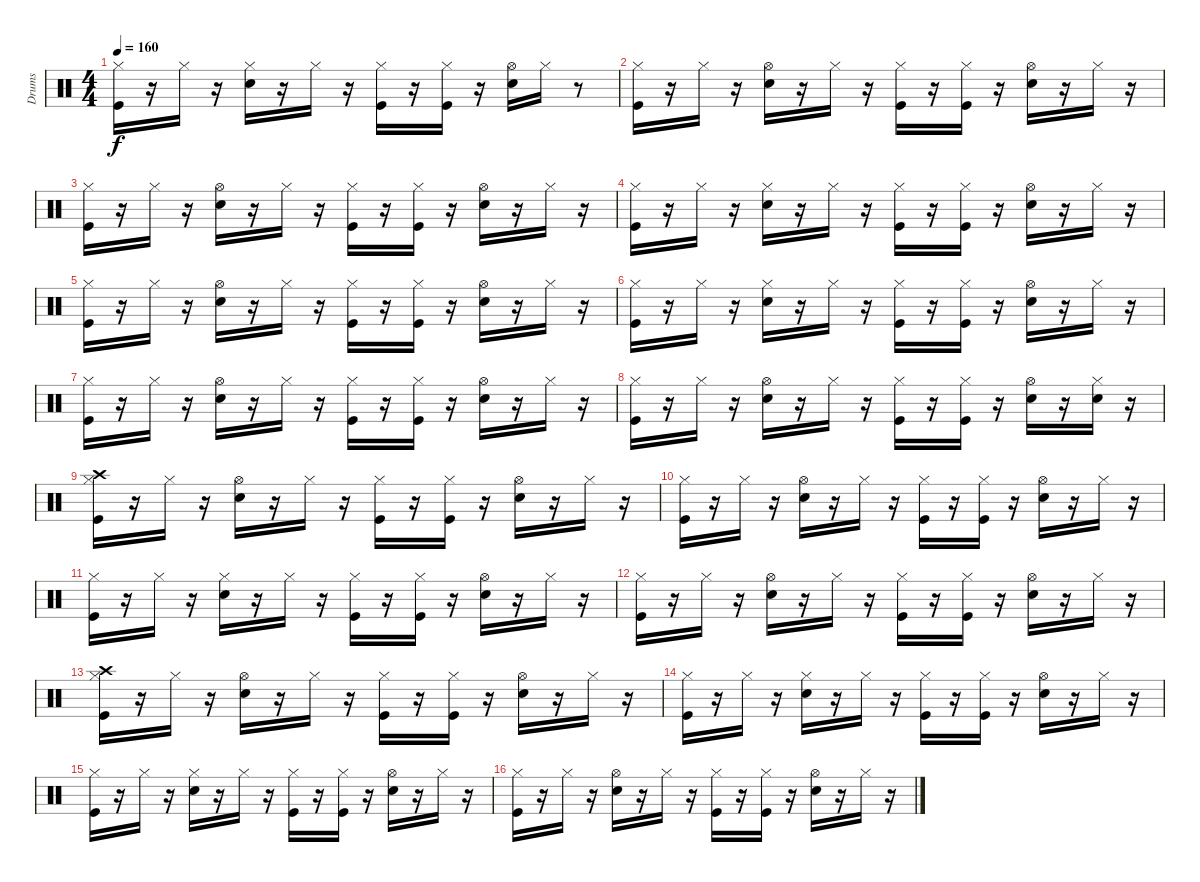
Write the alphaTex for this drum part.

\track ("Drums" "Drums") {instrument percussion}
\staff {score}
\articulation defaults
\ts (4 4)
\tempo 160
\clef neutral
\ks c
("Hi-Hat (closed)" "Kick (hit)").16{dy f} r.16 "Hi-Hat (closed)".16 r.16 ("Hi-Hat (closed)" "Snare (hit) 2").16 r.16 "Hi-Hat (closed)".16 r.16 ("Hi-Hat (closed)" "Kick (hit)").16 r.16 ("Kick (hit)" "Hi-Hat (closed)").16 r.16 ("Hi-Hat (open)" "Snare (hit) 2").16 "Hi-Hat (closed)".16 r.8 |
("Hi-Hat (closed)" "Kick (hit)").16 r.16 "Hi-Hat (closed)".16 r.16 ("Hi-Hat (open)" "Snare (hit) 2").16 r.16 "Hi-Hat (closed)".16 r.16 ("Hi-Hat (closed)" "Kick (hit)").16 r.16 ("Kick (hit)" "Hi-Hat (closed)").16 r.16 ("Hi-Hat (open)" "Snare (hit) 2").16 r.16 "Hi-Hat (closed)".16 r.16 |
("Hi-Hat (closed)" "Kick (hit)").16 r.16 "Hi-Hat (closed)".16 r.16 ("Hi-Hat (open)" "Snare (hit) 2").16 r.16 "Hi-Hat (closed)".16 r.16 ("Hi-Hat (closed)" "Kick (hit)").16 r.16 ("Kick (hit)" "Hi-Hat (closed)").16 r.16 ("Hi-Hat (open)" "Snare (hit) 2").16 r.16 "Hi-Hat (closed)".16 r.16 |
("Hi-Hat (closed)" "Kick (hit)").16 r.16 "Hi-Hat (closed)".16 r.16 ("Hi-Hat (closed)" "Snare (hit) 2").16 r.16 "Hi-Hat (closed)".16 r.16 ("Hi-Hat (closed)" "Kick (hit)").16 r.16 ("Kick (hit)" "Hi-Hat (closed)").16 r.16 ("Hi-Hat (open)" "Snare (hit) 2").16 r.16 "Hi-Hat (closed)".16 r.16 |
("Hi-Hat (closed)" "Kick (hit)").16 r.16 "Hi-Hat (closed)".16 r.16 ("Hi-Hat (open)" "Snare (hit) 2").16 r.16 "Hi-Hat (closed)".16 r.16 ("Hi-Hat (closed)" "Kick (hit)").16 r.16 ("Kick (hit)" "Hi-Hat (closed)").16 r.16 ("Hi-Hat (open)" "Snare (hit) 2").16 r.16 "Hi-Hat (closed)".16 r.16 |
("Hi-Hat (closed)" "Kick (hit)").16 r.16 "Hi-Hat (closed)".16 r.16 ("Hi-Hat (closed)" "Snare (hit) 2").16 r.16 "Hi-Hat (closed)".16 r.16 ("Hi-Hat (closed)" "Kick (hit)").16 r.16 ("Kick (hit)" "Hi-Hat (closed)").16 r.16 ("Hi-Hat (open)" "Snare (hit) 2").16 r.16 "Hi-Hat (closed)".16 r.16 |
("Hi-Hat (closed)" "Kick (hit)").16 r.16 "Hi-Hat (closed)".16 r.16 ("Hi-Hat (open)" "Snare (hit) 2").16 r.16 "Hi-Hat (closed)".16 r.16 ("Hi-Hat (closed)" "Kick (hit)").16 r.16 ("Kick (hit)" "Hi-Hat (closed)").16 r.16 ("Hi-Hat (open)" "Snare (hit) 2").16 r.16 "Hi-Hat (closed)".16 r.16 |
("Hi-Hat (closed)" "Kick (hit)").16 r.16 "Hi-Hat (closed)".16 r.16 ("Hi-Hat (open)" "Snare (hit) 2").16 r.16 "Hi-Hat (closed)".16 r.16 ("Hi-Hat (closed)" "Kick (hit)").16 r.16 ("Kick (hit)" "Hi-Hat (closed)").16 r.16 ("Hi-Hat (open)" "Snare (hit) 2").16 r.16 ("Snare (hit) 2" "Hi-Hat (closed)").16 r.16 |
("Crash high (hit)" "Hi-Hat (closed)" "Kick (hit)").16 r.16 "Hi-Hat (closed)".16 r.16 ("Hi-Hat (open)" "Snare (hit) 2").16 r.16 "Hi-Hat (closed)".16 r.16 ("Hi-Hat (closed)" "Kick (hit)").16 r.16 ("Kick (hit)" "Hi-Hat (closed)").16 r.16 ("Hi-Hat (open)" "Snare (hit) 2").16 r.16 "Hi-Hat (closed)".16 r.16 |
("Hi-Hat (closed)" "Kick (hit)").16 r.16 "Hi-Hat (closed)".16 r.16 ("Hi-Hat (open)" "Snare (hit) 2").16 r.16 "Hi-Hat (closed)".16 r.16 ("Hi-Hat (closed)" "Kick (hit)").16 r.16 ("Kick (hit)" "Hi-Hat (closed)").16 r.16 ("Hi-Hat (open)" "Snare (hit) 2").16 r.16 "Hi-Hat (closed)".16 r.16 |
("Hi-Hat (closed)" "Kick (hit)").16 r.16 "Hi-Hat (closed)".16 r.16 ("Hi-Hat (closed)" "Snare (hit) 2").16 r.16 "Hi-Hat (closed)".16 r.16 ("Hi-Hat (closed)" "Kick (hit)").16 r.16 ("Kick (hit)" "Hi-Hat (closed)").16 r.16 ("Hi-Hat (open)" "Snare (hit) 2").16 r.16 "Hi-Hat (closed)".16 r.16 |
("Hi-Hat (closed)" "Kick (hit)").16 r.16 "Hi-Hat (closed)".16 r.16 ("Hi-Hat (open)" "Snare (hit) 2").16 r.16 "Hi-Hat (closed)".16 r.16 ("Hi-Hat (closed)" "Kick (hit)").16 r.16 ("Kick (hit)" "Hi-Hat (closed)").16 r.16 ("Hi-Hat (open)" "Snare (hit) 2").16 r.16 "Hi-Hat (closed)".16 r.16 |
("Crash high (hit)" "Hi-Hat (closed)" "Kick (hit)").16 r.16 "Hi-Hat (closed)".16 r.16 ("Hi-Hat (open)" "Snare (hit) 2").16 r.16 "Hi-Hat (closed)".16 r.16 ("Hi-Hat (closed)" "Kick (hit)").16 r.16 ("Kick (hit)" "Hi-Hat (closed)").16 r.16 ("Hi-Hat (open)" "Snare (hit) 2").16 r.16 "Hi-Hat (closed)".16 r.16 |
("Hi-Hat (closed)" "Kick (hit)").16 r.16 "Hi-Hat (closed)".16 r.16 ("Hi-Hat (closed)" "Snare (hit) 2").16 r.16 "Hi-Hat (closed)".16 r.16 ("Hi-Hat (closed)" "Kick (hit)").16 r.16 ("Kick (hit)" "Hi-Hat (closed)").16 r.16 ("Hi-Hat (open)" "Snare (hit) 2").16 r.16 "Hi-Hat (closed)".16 r.16 |
("Hi-Hat (closed)" "Kick (hit)").16 r.16 "Hi-Hat (closed)".16 r.16 ("Hi-Hat (closed)" "Snare (hit) 2").16 r.16 "Hi-Hat (closed)".16 r.16 ("Hi-Hat (closed)" "Kick (hit)").16 r.16 ("Kick (hit)" "Hi-Hat (closed)").16 r.16 ("Hi-Hat (open)" "Snare (hit) 2").16 r.16 "Hi-Hat (closed)".16 r.16 |
("Hi-Hat (closed)" "Kick (hit)").16 r.16 "Hi-Hat (closed)".16 r.16 ("Hi-Hat (open)" "Snare (hit) 2").16 r.16 "Hi-Hat (closed)".16 r.16 ("Hi-Hat (closed)" "Kick (hit)").16 r.16 ("Kick (hit)" "Hi-Hat (closed)").16 r.16 ("Hi-Hat (open)" "Snare (hit) 2").16 r.16 "Hi-Hat (closed)".16 r.16
